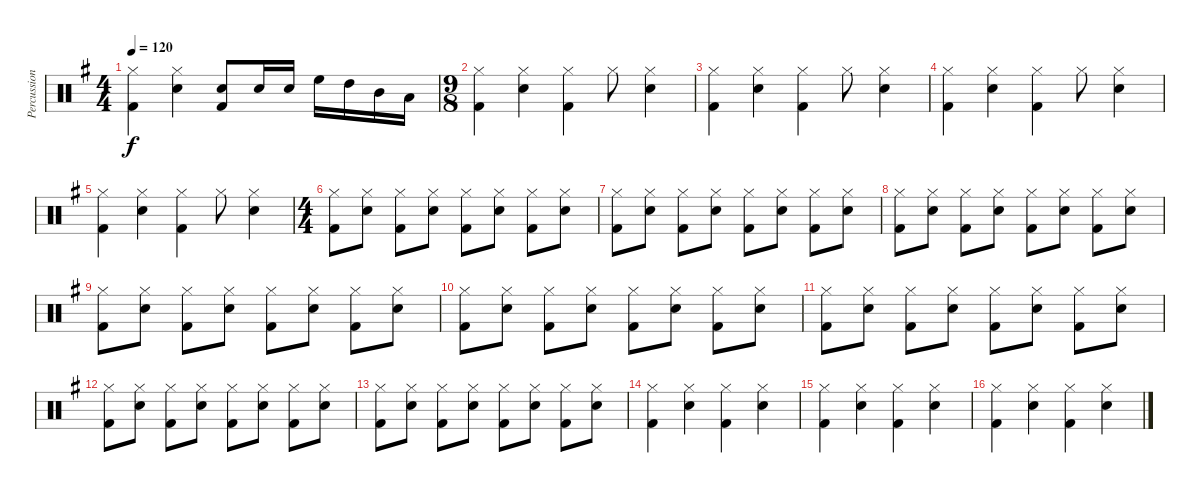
\track ("Percussion" "Percussion") {instrument percussion}
\staff {score}
\articulation defaults
\ts (4 4)
\tempo 120
\clef neutral
\ks eminor
("Hi-Hat (closed)" "Kick (hit) 2").4{dy f} ("Hi-Hat (closed)" "Snare (hit) 2").4 ("Snare (hit) 2" "Kick (hit) 2").8 "Snare (hit) 2".16 "Snare (hit) 2".16 "High Floor Tom (hit)".16 "High Tom (hit)".16 "Mid Tom (hit)".16 "Low Tom (hit)".16 |
\ts (9 8)
("Hi-Hat (closed)" "Kick (hit) 2").4 ("Hi-Hat (closed)" "Snare (hit) 2").4 ("Hi-Hat (closed)" "Kick (hit) 2").4 "Hi-Hat (closed)".8 ("Hi-Hat (closed)" "Snare (hit) 2").4 |
("Hi-Hat (closed)" "Kick (hit) 2").4 ("Hi-Hat (closed)" "Snare (hit) 2").4 ("Hi-Hat (closed)" "Kick (hit) 2").4 "Hi-Hat (closed)".8 ("Hi-Hat (closed)" "Snare (hit) 2").4 |
("Hi-Hat (closed)" "Kick (hit) 2").4 ("Hi-Hat (closed)" "Snare (hit) 2").4 ("Hi-Hat (closed)" "Kick (hit) 2").4 "Hi-Hat (closed)".8 ("Hi-Hat (closed)" "Snare (hit) 2").4 |
("Hi-Hat (closed)" "Kick (hit) 2").4 ("Hi-Hat (closed)" "Snare (hit) 2").4 ("Hi-Hat (closed)" "Kick (hit) 2").4 "Hi-Hat (closed)".8 ("Hi-Hat (closed)" "Snare (hit) 2").4 |
\ts (4 4)
("Hi-Hat (closed)" "Kick (hit) 2").8 ("Hi-Hat (closed)" "Snare (hit) 2").8 ("Hi-Hat (closed)" "Kick (hit) 2").8 ("Hi-Hat (closed)" "Snare (hit) 2").8 ("Hi-Hat (closed)" "Kick (hit) 2").8 ("Hi-Hat (closed)" "Snare (hit) 2").8 ("Hi-Hat (closed)" "Kick (hit) 2").8 ("Hi-Hat (closed)" "Snare (hit) 2").8 |
("Hi-Hat (closed)" "Kick (hit) 2").8 ("Hi-Hat (closed)" "Snare (hit) 2").8 ("Hi-Hat (closed)" "Kick (hit) 2").8 ("Hi-Hat (closed)" "Snare (hit) 2").8 ("Hi-Hat (closed)" "Kick (hit) 2").8 ("Hi-Hat (closed)" "Snare (hit) 2").8 ("Hi-Hat (closed)" "Kick (hit) 2").8 ("Hi-Hat (closed)" "Snare (hit) 2").8 |
("Hi-Hat (closed)" "Kick (hit) 2").8 ("Hi-Hat (closed)" "Snare (hit) 2").8 ("Hi-Hat (closed)" "Kick (hit) 2").8 ("Hi-Hat (closed)" "Snare (hit) 2").8 ("Hi-Hat (closed)" "Kick (hit) 2").8 ("Hi-Hat (closed)" "Snare (hit) 2").8 ("Hi-Hat (closed)" "Kick (hit) 2").8 ("Hi-Hat (closed)" "Snare (hit) 2").8 |
("Hi-Hat (closed)" "Kick (hit) 2").8 ("Hi-Hat (closed)" "Snare (hit) 2").8 ("Hi-Hat (closed)" "Kick (hit) 2").8 ("Hi-Hat (closed)" "Snare (hit) 2").8 ("Hi-Hat (closed)" "Kick (hit) 2").8 ("Hi-Hat (closed)" "Snare (hit) 2").8 ("Hi-Hat (closed)" "Kick (hit) 2").8 ("Hi-Hat (closed)" "Snare (hit) 2").8 |
("Hi-Hat (closed)" "Kick (hit) 2").8 ("Hi-Hat (closed)" "Snare (hit) 2").8 ("Hi-Hat (closed)" "Kick (hit) 2").8 ("Hi-Hat (closed)" "Snare (hit) 2").8 ("Hi-Hat (closed)" "Kick (hit) 2").8 ("Hi-Hat (closed)" "Snare (hit) 2").8 ("Hi-Hat (closed)" "Kick (hit) 2").8 ("Hi-Hat (closed)" "Snare (hit) 2").8 |
("Hi-Hat (closed)" "Kick (hit) 2").8 ("Hi-Hat (closed)" "Snare (hit) 2").8 ("Hi-Hat (closed)" "Kick (hit) 2").8 ("Hi-Hat (closed)" "Snare (hit) 2").8 ("Hi-Hat (closed)" "Kick (hit) 2").8 ("Hi-Hat (closed)" "Snare (hit) 2").8 ("Hi-Hat (closed)" "Kick (hit) 2").8 ("Hi-Hat (closed)" "Snare (hit) 2").8 |
("Hi-Hat (closed)" "Kick (hit) 2").8 ("Hi-Hat (closed)" "Snare (hit) 2").8 ("Hi-Hat (closed)" "Kick (hit) 2").8 ("Hi-Hat (closed)" "Snare (hit) 2").8 ("Hi-Hat (closed)" "Kick (hit) 2").8 ("Hi-Hat (closed)" "Snare (hit) 2").8 ("Hi-Hat (closed)" "Kick (hit) 2").8 ("Hi-Hat (closed)" "Snare (hit) 2").8 |
("Hi-Hat (closed)" "Kick (hit) 2").8 ("Hi-Hat (closed)" "Snare (hit) 2").8 ("Hi-Hat (closed)" "Kick (hit) 2").8 ("Hi-Hat (closed)" "Snare (hit) 2").8 ("Hi-Hat (closed)" "Kick (hit) 2").8 ("Hi-Hat (closed)" "Snare (hit) 2").8 ("Hi-Hat (closed)" "Kick (hit) 2").8 ("Hi-Hat (closed)" "Snare (hit) 2").8 |
("Hi-Hat (closed)" "Kick (hit) 2").4 ("Hi-Hat (closed)" "Snare (hit) 2").4 ("Hi-Hat (closed)" "Kick (hit) 2").4 ("Hi-Hat (closed)" "Snare (hit) 2").4 |
("Hi-Hat (closed)" "Kick (hit) 2").4 ("Hi-Hat (closed)" "Snare (hit) 2").4 ("Hi-Hat (closed)" "Kick (hit) 2").4 ("Hi-Hat (closed)" "Snare (hit) 2").4 |
("Hi-Hat (closed)" "Kick (hit) 2").4 ("Hi-Hat (closed)" "Snare (hit) 2").4 ("Hi-Hat (closed)" "Kick (hit) 2").4 ("Hi-Hat (closed)" "Snare (hit) 2").4
